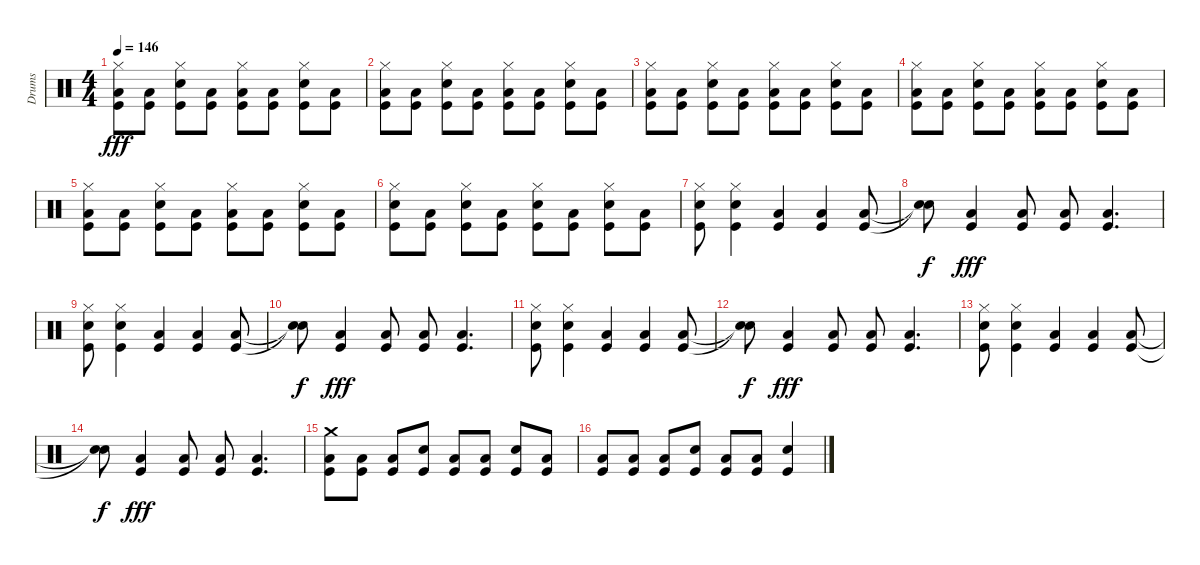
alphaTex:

\track ("Drums" "Drums") {instrument percussion}
\staff {score}
\articulation defaults
\ts (4 4)
\tempo 146
\clef neutral
\ks c
("Hi-Hat (closed)" "Low Floor Tom (hit)" "Kick (hit)").8{dy fff} ("Low Floor Tom (hit)" "Kick (hit)").8 ("Hi-Hat (closed)" "Electric Snare (hit)" "Kick (hit)").8 ("Low Floor Tom (hit)" "Kick (hit)").8 ("Hi-Hat (closed)" "Low Floor Tom (hit)" "Kick (hit)").8 ("Low Floor Tom (hit)" "Kick (hit)").8 ("Hi-Hat (closed)" "Electric Snare (hit)" "Kick (hit)").8 ("Low Floor Tom (hit)" "Kick (hit)").8 |
("Hi-Hat (closed)" "Low Floor Tom (hit)" "Kick (hit)").8 ("Low Floor Tom (hit)" "Kick (hit)").8 ("Hi-Hat (closed)" "Electric Snare (hit)" "Kick (hit)").8 ("Low Floor Tom (hit)" "Kick (hit)").8 ("Hi-Hat (closed)" "Low Floor Tom (hit)" "Kick (hit)").8 ("Low Floor Tom (hit)" "Kick (hit)").8 ("Hi-Hat (closed)" "Electric Snare (hit)" "Kick (hit)").8 ("Low Floor Tom (hit)" "Kick (hit)").8 |
("Hi-Hat (closed)" "Low Floor Tom (hit)" "Kick (hit)").8 ("Low Floor Tom (hit)" "Kick (hit)").8 ("Hi-Hat (closed)" "Electric Snare (hit)" "Kick (hit)").8 ("Low Floor Tom (hit)" "Kick (hit)").8 ("Hi-Hat (closed)" "Low Floor Tom (hit)" "Kick (hit)").8 ("Low Floor Tom (hit)" "Kick (hit)").8 ("Hi-Hat (closed)" "Electric Snare (hit)" "Kick (hit)").8 ("Low Floor Tom (hit)" "Kick (hit)").8 |
("Hi-Hat (closed)" "Low Floor Tom (hit)" "Kick (hit)").8 ("Low Floor Tom (hit)" "Kick (hit)").8 ("Hi-Hat (closed)" "Electric Snare (hit)" "Kick (hit)").8 ("Low Floor Tom (hit)" "Kick (hit)").8 ("Hi-Hat (closed)" "Low Floor Tom (hit)" "Kick (hit)").8 ("Low Floor Tom (hit)" "Kick (hit)").8 ("Hi-Hat (closed)" "Electric Snare (hit)" "Kick (hit)").8 ("Low Floor Tom (hit)" "Kick (hit)").8 |
("Hi-Hat (closed)" "Low Floor Tom (hit)" "Kick (hit)").8 ("Low Floor Tom (hit)" "Kick (hit)").8 ("Hi-Hat (closed)" "Electric Snare (hit)" "Kick (hit)").8 ("Low Floor Tom (hit)" "Kick (hit)").8 ("Hi-Hat (closed)" "Low Floor Tom (hit)" "Kick (hit)").8 ("Low Floor Tom (hit)" "Kick (hit)").8 ("Hi-Hat (closed)" "Electric Snare (hit)" "Kick (hit)").8 ("Low Floor Tom (hit)" "Kick (hit)").8 |
("Hi-Hat (closed)" "Electric Snare (hit)" "Kick (hit)").8 ("Low Floor Tom (hit)" "Kick (hit)").8 ("Hi-Hat (closed)" "Electric Snare (hit)" "Kick (hit)").8 ("Low Floor Tom (hit)" "Kick (hit)").8 ("Hi-Hat (closed)" "Electric Snare (hit)" "Kick (hit)").8 ("Low Floor Tom (hit)" "Kick (hit)").8 ("Hi-Hat (closed)" "Electric Snare (hit)" "Kick (hit)").8 ("Low Floor Tom (hit)" "Kick (hit)").8 |
("Hi-Hat (closed)" "Electric Snare (hit)" "Kick (hit)").8 ("Hi-Hat (closed)" "Electric Snare (hit)" "Kick (hit)").4 ("Low Floor Tom (hit)" "Kick (hit)").4 ("Low Floor Tom (hit)" "Kick (hit)").4 ("Low Floor Tom (hit)" "Kick (hit)").8 |
("Snare (hit)"{t} "Snare (hit)"{t}).8{dy f} ("Low Floor Tom (hit)" "Kick (hit)").4{dy fff} ("Low Floor Tom (hit)" "Kick (hit)").8 ("Low Floor Tom (hit)" "Kick (hit)").8 ("Low Floor Tom (hit)" "Kick (hit)").4{d} |
("Hi-Hat (closed)" "Electric Snare (hit)" "Kick (hit)").8 ("Hi-Hat (closed)" "Electric Snare (hit)" "Kick (hit)").4 ("Low Floor Tom (hit)" "Kick (hit)").4 ("Low Floor Tom (hit)" "Kick (hit)").4 ("Low Floor Tom (hit)" "Kick (hit)").8 |
("Snare (hit)"{t} "Snare (hit)"{t}).8{dy f} ("Low Floor Tom (hit)" "Kick (hit)").4{dy fff} ("Low Floor Tom (hit)" "Kick (hit)").8 ("Low Floor Tom (hit)" "Kick (hit)").8 ("Low Floor Tom (hit)" "Kick (hit)").4{d} |
("Hi-Hat (closed)" "Electric Snare (hit)" "Kick (hit)").8 ("Hi-Hat (closed)" "Electric Snare (hit)" "Kick (hit)").4 ("Low Floor Tom (hit)" "Kick (hit)").4 ("Low Floor Tom (hit)" "Kick (hit)").4 ("Low Floor Tom (hit)" "Kick (hit)").8 |
("Snare (hit)"{t} "Snare (hit)"{t}).8{dy f} ("Low Floor Tom (hit)" "Kick (hit)").4{dy fff} ("Low Floor Tom (hit)" "Kick (hit)").8 ("Low Floor Tom (hit)" "Kick (hit)").8 ("Low Floor Tom (hit)" "Kick (hit)").4{d} |
("Hi-Hat (closed)" "Electric Snare (hit)" "Kick (hit)").8 ("Hi-Hat (closed)" "Electric Snare (hit)" "Kick (hit)").4 ("Low Floor Tom (hit)" "Kick (hit)").4 ("Low Floor Tom (hit)" "Kick (hit)").4 ("Low Floor Tom (hit)" "Kick (hit)").8 |
("Snare (hit)"{t} "Snare (hit)"{t}).8{dy f} ("Low Floor Tom (hit)" "Kick (hit)").4{dy fff} ("Low Floor Tom (hit)" "Kick (hit)").8 ("Low Floor Tom (hit)" "Kick (hit)").8 ("Low Floor Tom (hit)" "Kick (hit)").4{d} |
("Crash medium (hit)" "Low Floor Tom (hit)" "Kick (hit)").8 ("Low Floor Tom (hit)" "Kick (hit)").8 ("Low Floor Tom (hit)" "Kick (hit)").8 ("Electric Snare (hit)" "Kick (hit)").8 ("Low Floor Tom (hit)" "Kick (hit)").8 ("Low Floor Tom (hit)" "Kick (hit)").8 ("Electric Snare (hit)" "Kick (hit)").8 ("Low Floor Tom (hit)" "Kick (hit)").8 |
("Low Floor Tom (hit)" "Kick (hit)").8 ("Low Floor Tom (hit)" "Kick (hit)").8 ("Low Floor Tom (hit)" "Kick (hit)").8 ("Electric Snare (hit)" "Kick (hit)").8 ("Low Floor Tom (hit)" "Kick (hit)").8 ("Low Floor Tom (hit)" "Kick (hit)").8 ("Electric Snare (hit)" "Kick (hit)").4
